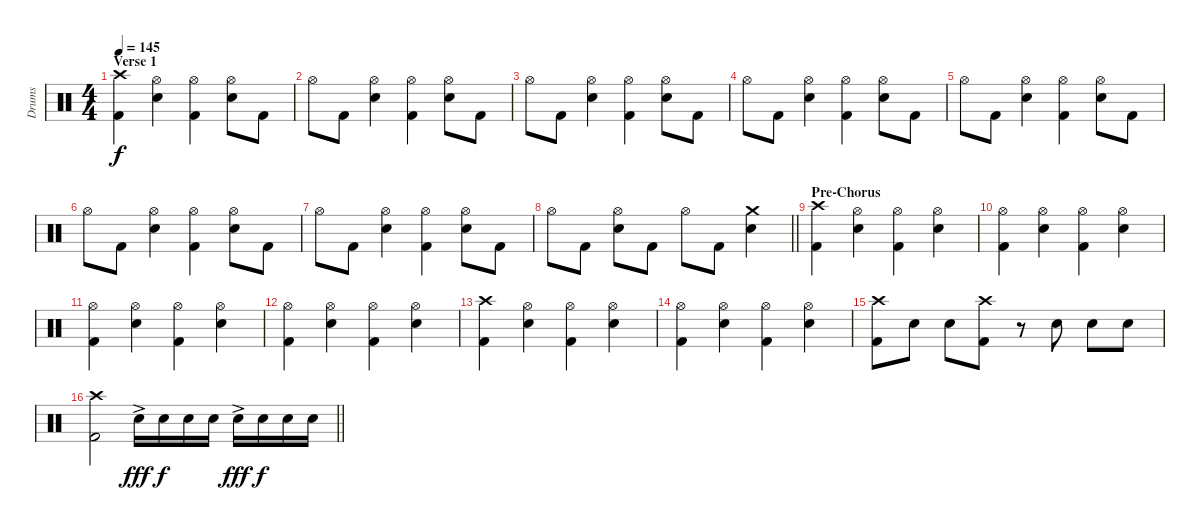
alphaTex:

\track ("Drums" "Drums") {instrument percussion}
\staff {score}
\articulation defaults
\ts (4 4)
\section ("" "Verse 1")
\tempo 145
\clef neutral
\ks c
("Crash high (hit)" "Kick (hit) 2").4{dy f} ("Hi-Hat (open)" "Snare (hit) 2").4 ("Hi-Hat (open)" "Kick (hit) 2").4 ("Hi-Hat (open)" "Snare (hit) 2").8 "Kick (hit) 2".8 |
"Hi-Hat (open)".8 "Kick (hit) 2".8 ("Hi-Hat (open)" "Snare (hit) 2").4 ("Hi-Hat (open)" "Kick (hit) 2").4 ("Hi-Hat (open)" "Snare (hit) 2").8 "Kick (hit) 2".8 |
"Hi-Hat (open)".8 "Kick (hit) 2".8 ("Hi-Hat (open)" "Snare (hit) 2").4 ("Hi-Hat (open)" "Kick (hit) 2").4 ("Hi-Hat (open)" "Snare (hit) 2").8 "Kick (hit) 2".8 |
"Hi-Hat (open)".8 "Kick (hit) 2".8 ("Hi-Hat (open)" "Snare (hit) 2").4 ("Hi-Hat (open)" "Kick (hit) 2").4 ("Hi-Hat (open)" "Snare (hit) 2").8 "Kick (hit) 2".8 |
"Hi-Hat (open)".8 "Kick (hit) 2".8 ("Hi-Hat (open)" "Snare (hit) 2").4 ("Hi-Hat (open)" "Kick (hit) 2").4 ("Hi-Hat (open)" "Snare (hit) 2").8 "Kick (hit) 2".8 |
"Hi-Hat (open)".8 "Kick (hit) 2".8 ("Hi-Hat (open)" "Snare (hit) 2").4 ("Hi-Hat (open)" "Kick (hit) 2").4 ("Hi-Hat (open)" "Snare (hit) 2").8 "Kick (hit) 2".8 |
"Hi-Hat (open)".8 "Kick (hit) 2".8 ("Hi-Hat (open)" "Snare (hit) 2").4 ("Hi-Hat (open)" "Kick (hit) 2").4 ("Hi-Hat (open)" "Snare (hit) 2").8 "Kick (hit) 2".8 |
\barLineRight lightlight "Hi-Hat (open)".8 "Kick (hit) 2".8
("Hi-Hat (open)" "Snare (hit) 2").8 "Kick (hit) 2".8 "Hi-Hat (open)".8 "Kick (hit) 2".8 ("Crash medium (hit)" "Snare (hit) 2").4 |
\section ("" "Pre-Chorus")
("Crash high (hit)" "Kick (hit) 2").4 ("Hi-Hat (open)" "Snare (hit) 2").4 ("Hi-Hat (open)" "Kick (hit) 2").4 ("Hi-Hat (open)" "Snare (hit) 2").4 |
("Hi-Hat (open)" "Kick (hit) 2").4 ("Hi-Hat (open)" "Snare (hit) 2").4 ("Hi-Hat (open)" "Kick (hit) 2").4 ("Hi-Hat (open)" "Snare (hit) 2").4 |
("Hi-Hat (open)" "Kick (hit) 2").4 ("Hi-Hat (open)" "Snare (hit) 2").4 ("Hi-Hat (open)" "Kick (hit) 2").4 ("Hi-Hat (open)" "Snare (hit) 2").4 |
("Hi-Hat (open)" "Kick (hit) 2").4 ("Hi-Hat (open)" "Snare (hit) 2").4 ("Hi-Hat (open)" "Kick (hit) 2").4 ("Hi-Hat (open)" "Snare (hit) 2").4 |
("Crash high (hit)" "Kick (hit) 2").4 ("Hi-Hat (open)" "Snare (hit) 2").4 ("Hi-Hat (open)" "Kick (hit) 2").4 ("Hi-Hat (open)" "Snare (hit) 2").4 |
("Hi-Hat (open)" "Kick (hit) 2").4 ("Hi-Hat (open)" "Snare (hit) 2").4 ("Hi-Hat (open)" "Kick (hit) 2").4 ("Hi-Hat (open)" "Snare (hit) 2").4 |
("Crash high (hit)" "Kick (hit) 2").8 "Snare (hit) 2".8 "Snare (hit) 2".8 ("Crash high (hit)" "Kick (hit) 2").8 r.8 "Snare (hit) 2".8 "Snare (hit) 2".8 "Snare (hit) 2".8 |
\barLineRight lightlight
("Crash high (hit)" "Kick (hit) 2").2 "Snare (hit) 2"{ac}.16{dy fff} "Snare (hit) 2".16{dy f} "Snare (hit) 2".16 "Snare (hit) 2".16 "Snare (hit) 2"{ac}.16{dy fff} "Snare (hit) 2".16{dy f} "Snare (hit) 2".16 "Snare (hit) 2".16
